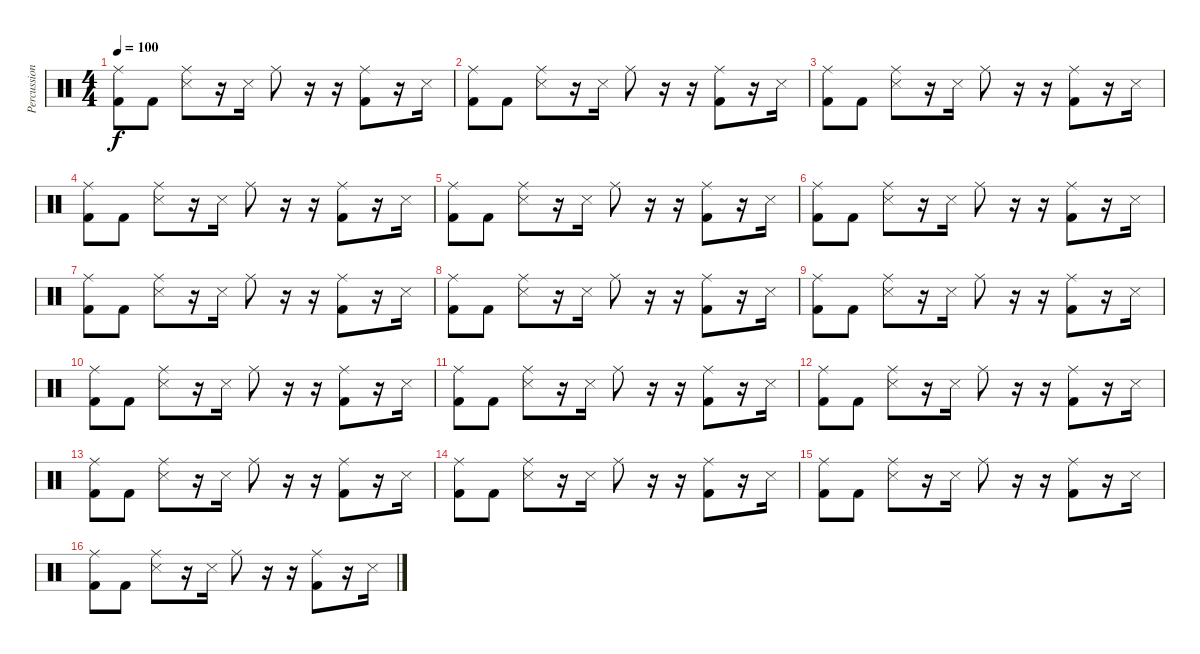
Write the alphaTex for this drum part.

\track ("Percussion" "Percussion") {instrument percussion}
\staff {score}
\articulation defaults
\ts (4 4)
\tempo 100
\clef neutral
\ks c
("Ride (middle)" "Kick (hit) 2").8{dy f} "Kick (hit) 2".8 ("Ride (middle)" "Snare (side stick) 3").8 r.16 "Snare (side stick) 3".16 "Ride (middle)".8 r.16 r.16 ("Ride (middle)" "Kick (hit) 2").8 r.16 "Snare (side stick) 3".16 |
("Ride (middle)" "Kick (hit) 2").8 "Kick (hit) 2".8 ("Ride (middle)" "Snare (side stick) 3").8 r.16 "Snare (side stick) 3".16 "Ride (middle)".8 r.16 r.16 ("Ride (middle)" "Kick (hit) 2").8 r.16 "Snare (side stick) 3".16 |
("Ride (middle)" "Kick (hit) 2").8 "Kick (hit) 2".8 ("Ride (middle)" "Snare (side stick) 3").8 r.16 "Snare (side stick) 3".16 "Ride (middle)".8 r.16 r.16 ("Ride (middle)" "Kick (hit) 2").8 r.16 "Snare (side stick) 3".16 |
("Ride (middle)" "Kick (hit) 2").8 "Kick (hit) 2".8 ("Ride (middle)" "Snare (side stick) 3").8 r.16 "Snare (side stick) 3".16 "Ride (middle)".8 r.16 r.16 ("Ride (middle)" "Kick (hit) 2").8 r.16 "Snare (side stick) 3".16 |
("Ride (middle)" "Kick (hit) 2").8 "Kick (hit) 2".8 ("Ride (middle)" "Snare (side stick) 3").8 r.16 "Snare (side stick) 3".16 "Ride (middle)".8 r.16 r.16 ("Ride (middle)" "Kick (hit) 2").8 r.16 "Snare (side stick) 3".16 |
("Ride (middle)" "Kick (hit) 2").8 "Kick (hit) 2".8 ("Ride (middle)" "Snare (side stick) 3").8 r.16 "Snare (side stick) 3".16 "Ride (middle)".8 r.16 r.16 ("Ride (middle)" "Kick (hit) 2").8 r.16 "Snare (side stick) 3".16 |
("Ride (middle)" "Kick (hit) 2").8 "Kick (hit) 2".8 ("Ride (middle)" "Snare (side stick) 3").8 r.16 "Snare (side stick) 3".16 "Ride (middle)".8 r.16 r.16 ("Ride (middle)" "Kick (hit) 2").8 r.16 "Snare (side stick) 3".16 |
("Ride (middle)" "Kick (hit) 2").8 "Kick (hit) 2".8 ("Ride (middle)" "Snare (side stick) 3").8 r.16 "Snare (side stick) 3".16 "Ride (middle)".8 r.16 r.16 ("Ride (middle)" "Kick (hit) 2").8 r.16 "Snare (side stick) 3".16 |
("Ride (middle)" "Kick (hit) 2").8 "Kick (hit) 2".8 ("Ride (middle)" "Snare (side stick) 3").8 r.16 "Snare (side stick) 3".16 "Ride (middle)".8 r.16 r.16 ("Ride (middle)" "Kick (hit) 2").8 r.16 "Snare (side stick) 3".16 |
("Ride (middle)" "Kick (hit) 2").8 "Kick (hit) 2".8 ("Ride (middle)" "Snare (side stick) 3").8 r.16 "Snare (side stick) 3".16 "Ride (middle)".8 r.16 r.16 ("Ride (middle)" "Kick (hit) 2").8 r.16 "Snare (side stick) 3".16 |
("Ride (middle)" "Kick (hit) 2").8 "Kick (hit) 2".8 ("Ride (middle)" "Snare (side stick) 3").8 r.16 "Snare (side stick) 3".16 "Ride (middle)".8 r.16 r.16 ("Ride (middle)" "Kick (hit) 2").8 r.16 "Snare (side stick) 3".16 |
("Ride (middle)" "Kick (hit) 2").8 "Kick (hit) 2".8 ("Ride (middle)" "Snare (side stick) 3").8 r.16 "Snare (side stick) 3".16 "Ride (middle)".8 r.16 r.16 ("Ride (middle)" "Kick (hit) 2").8 r.16 "Snare (side stick) 3".16 |
("Ride (middle)" "Kick (hit) 2").8 "Kick (hit) 2".8 ("Ride (middle)" "Snare (side stick) 3").8 r.16 "Snare (side stick) 3".16 "Ride (middle)".8 r.16 r.16 ("Ride (middle)" "Kick (hit) 2").8 r.16 "Snare (side stick) 3".16 |
("Ride (middle)" "Kick (hit) 2").8 "Kick (hit) 2".8 ("Ride (middle)" "Snare (side stick) 3").8 r.16 "Snare (side stick) 3".16 "Ride (middle)".8 r.16 r.16 ("Ride (middle)" "Kick (hit) 2").8 r.16 "Snare (side stick) 3".16 |
("Ride (middle)" "Kick (hit) 2").8 "Kick (hit) 2".8 ("Ride (middle)" "Snare (side stick) 3").8 r.16 "Snare (side stick) 3".16 "Ride (middle)".8 r.16 r.16 ("Ride (middle)" "Kick (hit) 2").8 r.16 "Snare (side stick) 3".16 |
("Ride (middle)" "Kick (hit) 2").8 "Kick (hit) 2".8 ("Ride (middle)" "Snare (side stick) 3").8 r.16 "Snare (side stick) 3".16 "Ride (middle)".8 r.16 r.16 ("Ride (middle)" "Kick (hit) 2").8 r.16 "Snare (side stick) 3".16
